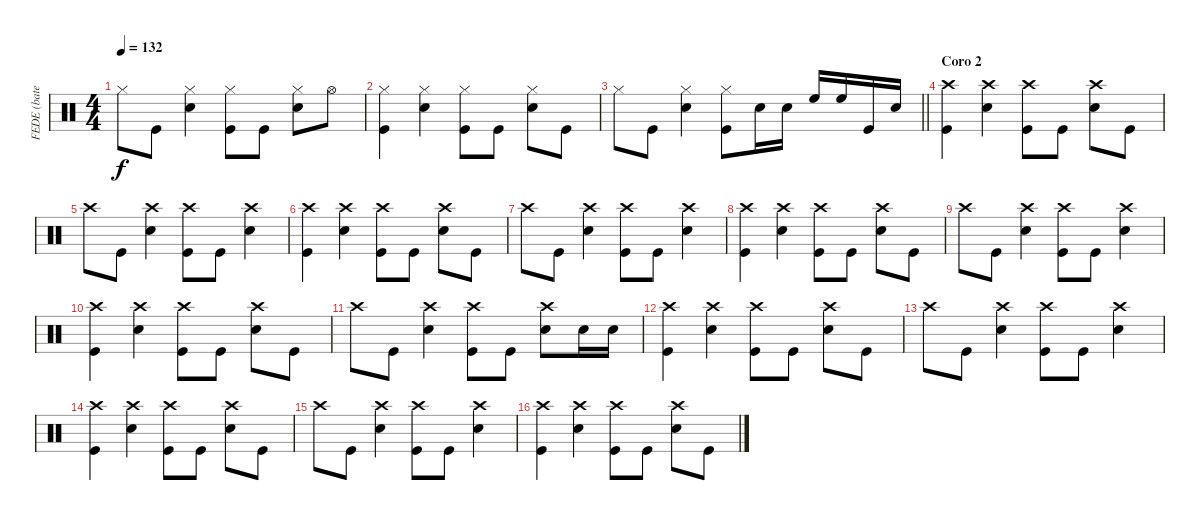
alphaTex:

\track ("FEDE (bateria)" "FEDE (bate") {instrument percussion}
\staff {score}
\articulation defaults
\ts (4 4)
\tempo 132
\clef neutral
\ks c "Hi-Hat (closed)".8{dy f} "Kick (hit)".8
("Hi-Hat (closed)" "Snare (hit) 2").4 ("Hi-Hat (closed)" "Kick (hit)").8 "Kick (hit)".8 ("Hi-Hat (closed)" "Snare (hit) 2").8 "Hi-Hat (open)".8 |
("Hi-Hat (closed)" "Kick (hit)").4 ("Hi-Hat (closed)" "Snare (hit) 2").4 ("Hi-Hat (closed)" "Kick (hit)").8 "Kick (hit)".8 ("Hi-Hat (closed)" "Snare (hit) 2").8 "Kick (hit)".8 |
\barLineRight lightlight "Hi-Hat (closed)".8 "Kick (hit)".8
("Hi-Hat (closed)" "Snare (hit) 2").4 ("Hi-Hat (closed)" "Kick (hit)").8 "Snare (hit) 2".16 "Snare (hit) 2".16 "High Floor Tom (hit)".16 "High Floor Tom (hit)".16 "Kick (hit)".16 "Snare (hit) 2".16 |
\section ("" "Coro 2")
("Crash high (hit)" "Kick (hit)").4 ("Crash high (hit)" "Snare (hit) 2").4 ("Crash high (hit)" "Kick (hit)").8 "Kick (hit)".8 ("Crash high (hit)" "Snare (hit) 2").8 "Kick (hit)".8 |
"Crash high (hit)".8 "Kick (hit)".8 ("Crash high (hit)" "Snare (hit) 2").4 ("Crash high (hit)" "Kick (hit)").8 "Kick (hit)".8 ("Crash high (hit)" "Snare (hit) 2").4 |
("Crash high (hit)" "Kick (hit)").4 ("Crash high (hit)" "Snare (hit) 2").4 ("Crash high (hit)" "Kick (hit)").8 "Kick (hit)".8 ("Crash high (hit)" "Snare (hit) 2").8 "Kick (hit)".8 |
"Crash high (hit)".8 "Kick (hit)".8 ("Crash high (hit)" "Snare (hit) 2").4 ("Crash high (hit)" "Kick (hit)").8 "Kick (hit)".8 ("Crash high (hit)" "Snare (hit) 2").4 |
("Crash high (hit)" "Kick (hit)").4 ("Crash high (hit)" "Snare (hit) 2").4 ("Crash high (hit)" "Kick (hit)").8 "Kick (hit)".8 ("Crash high (hit)" "Snare (hit) 2").8 "Kick (hit)".8 |
"Crash high (hit)".8 "Kick (hit)".8 ("Crash high (hit)" "Snare (hit) 2").4 ("Crash high (hit)" "Kick (hit)").8 "Kick (hit)".8 ("Crash high (hit)" "Snare (hit) 2").4 |
("Crash high (hit)" "Kick (hit)").4 ("Crash high (hit)" "Snare (hit) 2").4 ("Crash high (hit)" "Kick (hit)").8 "Kick (hit)".8 ("Crash high (hit)" "Snare (hit) 2").8 "Kick (hit)".8 |
"Crash high (hit)".8 "Kick (hit)".8 ("Crash high (hit)" "Snare (hit) 2").4 ("Crash high (hit)" "Kick (hit)").8 "Kick (hit)".8 ("Crash high (hit)" "Snare (hit) 2").8 "Snare (hit) 2".16 "Snare (hit) 2".16 |
("Crash high (hit)" "Kick (hit)").4 ("Crash high (hit)" "Snare (hit) 2").4 ("Crash high (hit)" "Kick (hit)").8 "Kick (hit)".8 ("Crash high (hit)" "Snare (hit) 2").8 "Kick (hit)".8 |
"Crash high (hit)".8 "Kick (hit)".8 ("Crash high (hit)" "Snare (hit) 2").4 ("Crash high (hit)" "Kick (hit)").8 "Kick (hit)".8 ("Crash high (hit)" "Snare (hit) 2").4 |
("Crash high (hit)" "Kick (hit)").4 ("Crash high (hit)" "Snare (hit) 2").4 ("Crash high (hit)" "Kick (hit)").8 "Kick (hit)".8 ("Crash high (hit)" "Snare (hit) 2").8 "Kick (hit)".8 |
"Crash high (hit)".8 "Kick (hit)".8 ("Crash high (hit)" "Snare (hit) 2").4 ("Crash high (hit)" "Kick (hit)").8 "Kick (hit)".8 ("Crash high (hit)" "Snare (hit) 2").4 |
("Crash high (hit)" "Kick (hit)").4 ("Crash high (hit)" "Snare (hit) 2").4 ("Crash high (hit)" "Kick (hit)").8 "Kick (hit)".8 ("Crash high (hit)" "Snare (hit) 2").8 "Kick (hit)".8
